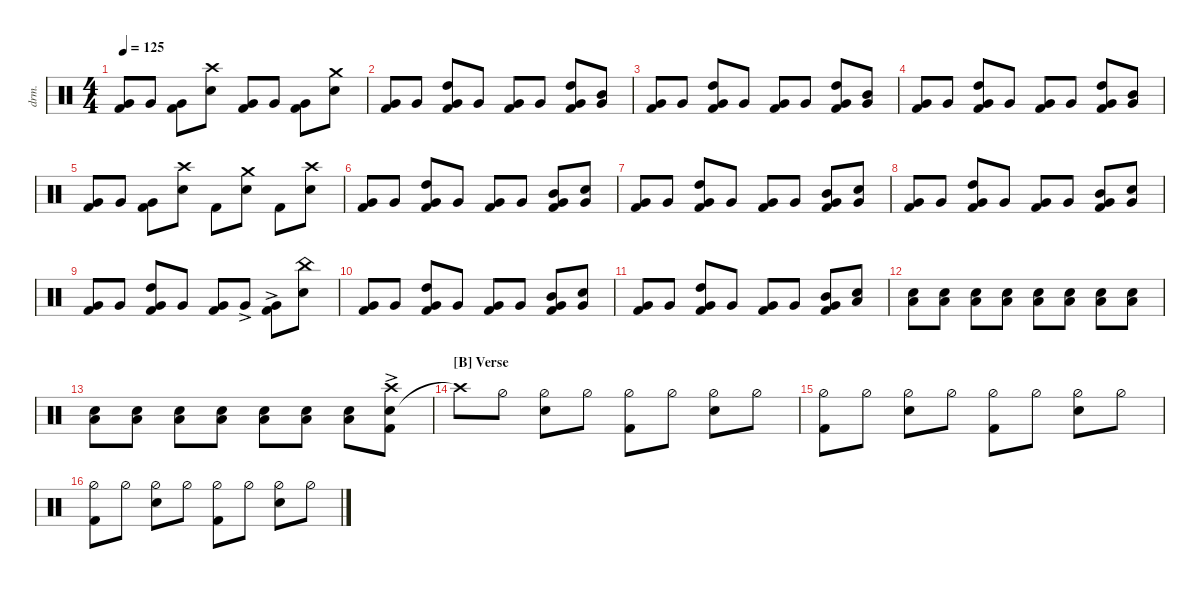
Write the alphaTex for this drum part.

\defaultSystemsLayout 4
\hideDynamics
\bracketExtendMode nobrackets
\otherSystemsTrackNameOrientation horizontal
\track ("Drums" "drm.") {defaultSystemsLayout 4 multiBarRest instrument percussion}
\staff
\articulation defaults
\ts (4 4)
\tempo 125
\clef neutral
\ks c
("Kick (hit) 2" "Very Low Tom (hit)").8{dy ff} "Very Low Tom (hit)".8 ("Very Low Tom (hit)" "Kick (hit) 2").8 ("Snare (hit) 2" "Crash high (hit)").8{dy f} ("Very Low Tom (hit)" "Kick (hit) 2").8{dy ff} "Very Low Tom (hit)".8 ("Very Low Tom (hit)" "Kick (hit) 2").8 ("Snare (hit) 2" "Crash medium (hit)").8{dy f} |
("Kick (hit) 2" "Very Low Tom (hit)").8{dy ff} "Very Low Tom (hit)".8 ("Very Low Tom (hit)" "Kick (hit) 2" "High Tom (hit)").8 "Very Low Tom (hit)".8 ("Very Low Tom (hit)" "Kick (hit) 2").8 "Very Low Tom (hit)".8 ("Very Low Tom (hit)" "Kick (hit) 2" "High Tom (hit)").8 ("Very Low Tom (hit)" "Mid Tom (hit)").8 |
("Kick (hit) 2" "Very Low Tom (hit)").8 "Very Low Tom (hit)".8 ("Very Low Tom (hit)" "Kick (hit) 2" "High Tom (hit)").8 "Very Low Tom (hit)".8 ("Very Low Tom (hit)" "Kick (hit) 2").8 "Very Low Tom (hit)".8 ("Very Low Tom (hit)" "Kick (hit) 2" "High Tom (hit)").8 ("Very Low Tom (hit)" "Mid Tom (hit)").8 |
("Kick (hit) 2" "Very Low Tom (hit)").8 "Very Low Tom (hit)".8 ("Very Low Tom (hit)" "Kick (hit) 2" "High Tom (hit)").8 "Very Low Tom (hit)".8 ("Very Low Tom (hit)" "Kick (hit) 2").8 "Very Low Tom (hit)".8 ("Very Low Tom (hit)" "Kick (hit) 2" "High Tom (hit)").8 ("Very Low Tom (hit)" "Mid Tom (hit)").8 |
("Kick (hit) 2" "Very Low Tom (hit)").8 "Very Low Tom (hit)".8 ("Very Low Tom (hit)" "Kick (hit) 2").8 ("Crash high (hit)" "Snare (hit) 2").8{dy f} "Kick (hit) 2".8 ("Snare (hit) 2" "Crash medium (hit)").8 "Kick (hit) 2".8 ("Snare (hit) 2" "Crash high (hit)").8 |
("Kick (hit) 2" "Very Low Tom (hit)").8{dy ff} "Very Low Tom (hit)".8 ("Very Low Tom (hit)" "Kick (hit) 2" "High Tom (hit)").8 "Very Low Tom (hit)".8 ("Very Low Tom (hit)" "Kick (hit) 2").8 "Very Low Tom (hit)".8 ("Very Low Tom (hit)" "Kick (hit) 2" "Mid Tom (hit)").8 ("Very Low Tom (hit)" "Snare (hit) 2").8{dy f} |
("Kick (hit) 2" "Very Low Tom (hit)").8{dy ff} "Very Low Tom (hit)".8 ("Very Low Tom (hit)" "Kick (hit) 2" "High Tom (hit)").8 "Very Low Tom (hit)".8 ("Very Low Tom (hit)" "Kick (hit) 2").8 "Very Low Tom (hit)".8 ("Very Low Tom (hit)" "Kick (hit) 2" "Mid Tom (hit)").8 ("Very Low Tom (hit)" "Snare (hit) 2").8{dy f} |
("Kick (hit) 2" "Very Low Tom (hit)").8{dy ff} "Very Low Tom (hit)".8 ("Very Low Tom (hit)" "Kick (hit) 2" "High Tom (hit)").8 "Very Low Tom (hit)".8 ("Very Low Tom (hit)" "Kick (hit) 2").8 "Very Low Tom (hit)".8 ("Very Low Tom (hit)" "Kick (hit) 2" "Mid Tom (hit)").8 ("Very Low Tom (hit)" "Snare (hit) 2").8{dy f} |
("Kick (hit) 2" "Very Low Tom (hit)").8{dy ff} "Very Low Tom (hit)".8 ("Very Low Tom (hit)" "Kick (hit) 2" "High Tom (hit)").8 "Very Low Tom (hit)".8 ("Very Low Tom (hit)" "Kick (hit) 2").8 "Very Low Tom (hit)"{ac}.8 ("Very Low Tom (hit)"{ac} "Kick (hit) 2").8 ("Snare (hit) 2" "China (hit)").8{dy f} |
("Kick (hit) 2" "Very Low Tom (hit)").8{dy ff} "Very Low Tom (hit)".8 ("Very Low Tom (hit)" "Kick (hit) 2" "High Tom (hit)").8 "Very Low Tom (hit)".8 ("Very Low Tom (hit)" "Kick (hit) 2").8 "Very Low Tom (hit)".8 ("Very Low Tom (hit)" "Kick (hit) 2" "Mid Tom (hit)").8 ("Very Low Tom (hit)" "Snare (hit) 2").8{dy f} |
("Kick (hit) 2" "Very Low Tom (hit)").8{dy ff} "Very Low Tom (hit)".8 ("Very Low Tom (hit)" "Kick (hit) 2" "High Tom (hit)").8 "Very Low Tom (hit)".8 ("Very Low Tom (hit)" "Kick (hit) 2").8 "Very Low Tom (hit)".8 ("Very Low Tom (hit)" "Kick (hit) 2" "Mid Tom (hit)").8 ("Low Tom (hit)" "Snare (hit) 2").8{dy p} |
("Low Tom (hit)" "Snare (hit) 2").8 ("Low Tom (hit)" "Snare (hit) 2").8 ("Low Tom (hit)" "Snare (hit) 2").8 ("Low Tom (hit)" "Snare (hit) 2").8 ("Low Tom (hit)" "Snare (hit) 2").8{dy mp} ("Low Tom (hit)" "Snare (hit) 2").8 ("Low Tom (hit)" "Snare (hit) 2").8 ("Low Tom (hit)" "Snare (hit) 2").8 |
("Low Tom (hit)" "Snare (hit) 2").8{dy mf} ("Low Tom (hit)" "Snare (hit) 2").8 ("Low Tom (hit)" "Snare (hit) 2").8 ("Low Tom (hit)" "Snare (hit) 2").8 ("Low Tom (hit)" "Snare (hit) 2").8 ("Low Tom (hit)" "Snare (hit) 2").8 ("Low Tom (hit)" "Snare (hit) 2").8 ("Snare (hit) 2"{ac} "Crash high (hit)"{ac} "Kick (hit) 2"{ac}).8{dy f} |
\section ("B" "Verse")
"Crash high (hit)"{t}.8 "Hi-Hat (half)".8 ("Hi-Hat (half)" "Snare (hit) 2").8 "Hi-Hat (half)".8 ("Hi-Hat (half)" "Kick (hit) 2").8 "Hi-Hat (half)".8 ("Hi-Hat (half)" "Snare (hit) 2").8 "Hi-Hat (half)".8 |
("Hi-Hat (half)" "Kick (hit) 2").8 "Hi-Hat (half)".8 ("Hi-Hat (half)" "Snare (hit) 2").8 "Hi-Hat (half)".8 ("Hi-Hat (half)" "Kick (hit) 2").8 "Hi-Hat (half)".8 ("Hi-Hat (half)" "Snare (hit) 2").8 "Hi-Hat (half)".8 |
("Hi-Hat (half)" "Kick (hit) 2").8 "Hi-Hat (half)".8 ("Hi-Hat (half)" "Snare (hit) 2").8 "Hi-Hat (half)".8 ("Hi-Hat (half)" "Kick (hit) 2").8 "Hi-Hat (half)".8 ("Hi-Hat (half)" "Snare (hit) 2").8 "Hi-Hat (half)".8
